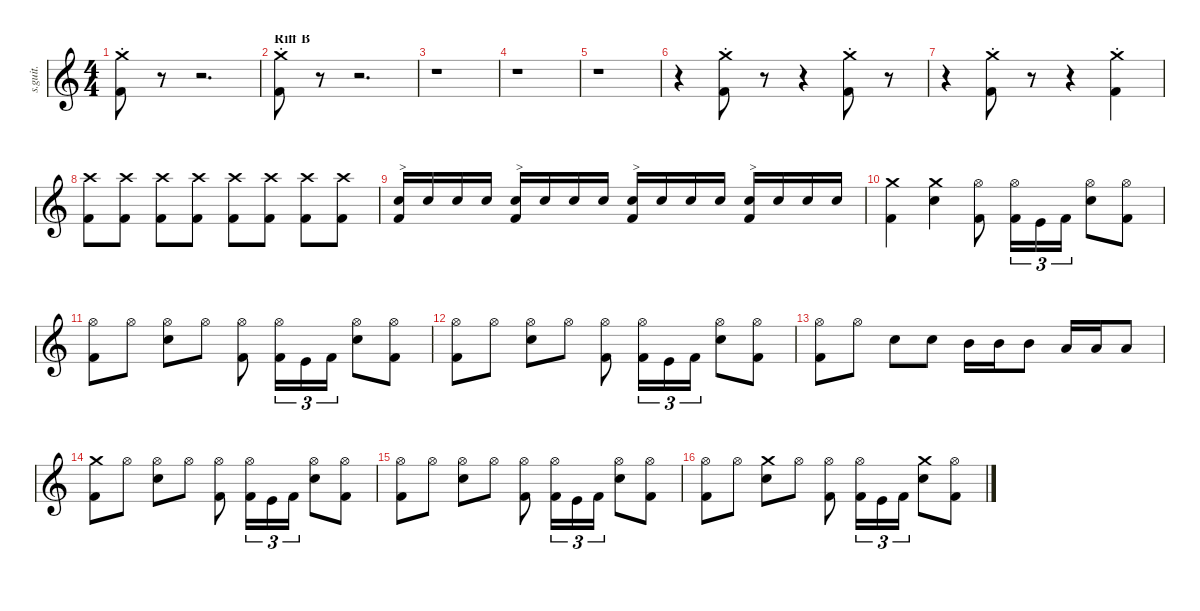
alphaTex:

\defaultSystemsLayout 4
\hideDynamics
\bracketExtendMode nobrackets
\track ("Lars Ulrich - Drums" "s.guit.") {instrument percussion}
\staff {score}
\articulation defaults
\ts (4 4)
\tempo (140 hide)
\clef g2
\ks c
("Crash medium (choke)" "Kick (hit) 2").8{lyrics (0 "") lyrics (1 "") lyrics (2 "") lyrics (3 "") lyrics (4 "") dy f} r.8 r.2{d} |
\section ("" "Riff B")
("Crash medium (choke)" "Kick (hit) 2").8{lyrics (0 "") lyrics (1 "") lyrics (2 "") lyrics (3 "") lyrics (4 "")} r.8 r.2{d} |
r.1 |
r.1 |
r.1 |
r.4 ("Crash medium (choke)" "Kick (hit) 2").8{lyrics (0 "") lyrics (1 "") lyrics (2 "") lyrics (3 "") lyrics (4 "")} r.8 r.4 ("Crash medium (choke)" "Kick (hit) 2").8{lyrics (0 "") lyrics (1 "") lyrics (2 "") lyrics (3 "") lyrics (4 "")} r.8 |
r.4 ("Crash medium (choke)" "Kick (hit) 2").8{lyrics (0 "") lyrics (1 "") lyrics (2 "") lyrics (3 "") lyrics (4 "")} r.8 r.4 ("Crash medium (choke)" "Kick (hit) 2").4{lyrics (0 "") lyrics (1 "") lyrics (2 "") lyrics (3 "") lyrics (4 "")} |
("Kick (hit) 2" "Crash high (hit)").8{lyrics (0 "") lyrics (1 "") lyrics (2 "") lyrics (3 "") lyrics (4 "")} ("Kick (hit) 2" "Crash high (hit)").8{lyrics (0 "") lyrics (1 "") lyrics (2 "") lyrics (3 "") lyrics (4 "")} ("Kick (hit) 2" "Crash high (hit)").8{lyrics (0 "") lyrics (1 "") lyrics (2 "") lyrics (3 "") lyrics (4 "")} ("Kick (hit) 2" "Crash high (hit)").8{lyrics (0 "") lyrics (1 "") lyrics (2 "") lyrics (3 "") lyrics (4 "")} ("Kick (hit) 2" "Crash high (hit)").8{lyrics (0 "") lyrics (1 "") lyrics (2 "") lyrics (3 "") lyrics (4 "")} ("Kick (hit) 2" "Crash high (hit)").8{lyrics (0 "") lyrics (1 "") lyrics (2 "") lyrics (3 "") lyrics (4 "")} ("Kick (hit) 2" "Crash high (hit)").8{lyrics (0 "") lyrics (1 "") lyrics (2 "") lyrics (3 "") lyrics (4 "")} ("Kick (hit) 2" "Crash high (hit)").8{lyrics (0 "") lyrics (1 "") lyrics (2 "") lyrics (3 "") lyrics (4 "")} |
("Snare (hit) 2" "Kick (hit) 2").16{txt ">" lyrics (0 "") lyrics (1 "") lyrics (2 "") lyrics (3 "") lyrics (4 "") dy fff} "Snare (hit) 2".16{lyrics (0 "") lyrics (1 "") lyrics (2 "") lyrics (3 "") lyrics (4 "") dy f} "Snare (hit) 2".16{lyrics (0 "") lyrics (1 "") lyrics (2 "") lyrics (3 "") lyrics (4 "")} "Snare (hit) 2".16{lyrics (0 "") lyrics (1 "") lyrics (2 "") lyrics (3 "") lyrics (4 "")} ("Snare (hit) 2" "Kick (hit) 2").16{txt ">" lyrics (0 "") lyrics (1 "") lyrics (2 "") lyrics (3 "") lyrics (4 "") dy fff} "Snare (hit) 2".16{lyrics (0 "") lyrics (1 "") lyrics (2 "") lyrics (3 "") lyrics (4 "") dy f} "Snare (hit) 2".16{lyrics (0 "") lyrics (1 "") lyrics (2 "") lyrics (3 "") lyrics (4 "")} "Snare (hit) 2".16{lyrics (0 "") lyrics (1 "") lyrics (2 "") lyrics (3 "") lyrics (4 "")} ("Snare (hit) 2" "Kick (hit) 2").16{txt ">" lyrics (0 "") lyrics (1 "") lyrics (2 "") lyrics (3 "") lyrics (4 "") dy fff} "Snare (hit) 2".16{lyrics (0 "") lyrics (1 "") lyrics (2 "") lyrics (3 "") lyrics (4 "") dy f} "Snare (hit) 2".16{lyrics (0 "") lyrics (1 "") lyrics (2 "") lyrics (3 "") lyrics (4 "")} "Snare (hit) 2".16{lyrics (0 "") lyrics (1 "") lyrics (2 "") lyrics (3 "") lyrics (4 "")} ("Snare (hit) 2" "Kick (hit) 2").16{txt ">" lyrics (0 "") lyrics (1 "") lyrics (2 "") lyrics (3 "") lyrics (4 "") dy fff} "Snare (hit) 2".16{lyrics (0 "") lyrics (1 "") lyrics (2 "") lyrics (3 "") lyrics (4 "") dy f} "Snare (hit) 2".16{lyrics (0 "") lyrics (1 "") lyrics (2 "") lyrics (3 "") lyrics (4 "")} "Snare (hit) 2".16{lyrics (0 "") lyrics (1 "") lyrics (2 "") lyrics (3 "") lyrics (4 "")} |
("Crash medium (hit)" "Kick (hit) 2").4{lyrics (0 "") lyrics (1 "") lyrics (2 "") lyrics (3 "") lyrics (4 "")} ("Crash medium (hit)" "Snare (hit) 2").4{lyrics (0 "") lyrics (1 "") lyrics (2 "") lyrics (3 "") lyrics (4 "")} ("Hi-Hat (open)" "Kick (hit) 2").8{lyrics (0 "") lyrics (1 "") lyrics (2 "") lyrics (3 "") lyrics (4 "")} ("Hi-Hat (open)" "Kick (hit) 2").16{tu (3 2) lyrics (0 "") lyrics (1 "") lyrics (2 "") lyrics (3 "") lyrics (4 "")} "Kick (hit)".16{tu (3 2) lyrics (0 "") lyrics (1 "") lyrics (2 "") lyrics (3 "") lyrics (4 "")} "Kick (hit) 2".16{tu (3 2) lyrics (0 "") lyrics (1 "") lyrics (2 "") lyrics (3 "") lyrics (4 "")} ("Hi-Hat (open)" "Snare (hit) 2").8{lyrics (0 "") lyrics (1 "") lyrics (2 "") lyrics (3 "") lyrics (4 "")} ("Hi-Hat (open)" "Kick (hit) 2").8{lyrics (0 "") lyrics (1 "") lyrics (2 "") lyrics (3 "") lyrics (4 "")} |
("Hi-Hat (open)" "Kick (hit) 2").8{lyrics (0 "") lyrics (1 "") lyrics (2 "") lyrics (3 "") lyrics (4 "")} "Hi-Hat (open)".8{lyrics (0 "") lyrics (1 "") lyrics (2 "") lyrics (3 "") lyrics (4 "")} ("Hi-Hat (open)" "Snare (hit) 2").8{lyrics (0 "") lyrics (1 "") lyrics (2 "") lyrics (3 "") lyrics (4 "")} "Hi-Hat (open)".8{lyrics (0 "") lyrics (1 "") lyrics (2 "") lyrics (3 "") lyrics (4 "")} ("Hi-Hat (open)" "Kick (hit) 2").8{lyrics (0 "") lyrics (1 "") lyrics (2 "") lyrics (3 "") lyrics (4 "")} ("Hi-Hat (open)" "Kick (hit) 2").16{tu (3 2) lyrics (0 "") lyrics (1 "") lyrics (2 "") lyrics (3 "") lyrics (4 "")} "Kick (hit)".16{tu (3 2) lyrics (0 "") lyrics (1 "") lyrics (2 "") lyrics (3 "") lyrics (4 "")} "Kick (hit) 2".16{tu (3 2) lyrics (0 "") lyrics (1 "") lyrics (2 "") lyrics (3 "") lyrics (4 "")} ("Hi-Hat (open)" "Snare (hit) 2").8{lyrics (0 "") lyrics (1 "") lyrics (2 "") lyrics (3 "") lyrics (4 "")} ("Hi-Hat (open)" "Kick (hit) 2").8{lyrics (0 "") lyrics (1 "") lyrics (2 "") lyrics (3 "") lyrics (4 "")} |
("Hi-Hat (open)" "Kick (hit) 2").8{lyrics (0 "") lyrics (1 "") lyrics (2 "") lyrics (3 "") lyrics (4 "")} "Hi-Hat (open)".8{lyrics (0 "") lyrics (1 "") lyrics (2 "") lyrics (3 "") lyrics (4 "")} ("Hi-Hat (open)" "Snare (hit) 2").8{lyrics (0 "") lyrics (1 "") lyrics (2 "") lyrics (3 "") lyrics (4 "")} "Hi-Hat (open)".8{lyrics (0 "") lyrics (1 "") lyrics (2 "") lyrics (3 "") lyrics (4 "")} ("Hi-Hat (open)" "Kick (hit) 2").8{lyrics (0 "") lyrics (1 "") lyrics (2 "") lyrics (3 "") lyrics (4 "")} ("Hi-Hat (open)" "Kick (hit) 2").16{tu (3 2) lyrics (0 "") lyrics (1 "") lyrics (2 "") lyrics (3 "") lyrics (4 "")} "Kick (hit)".16{tu (3 2) lyrics (0 "") lyrics (1 "") lyrics (2 "") lyrics (3 "") lyrics (4 "")} "Kick (hit) 2".16{tu (3 2) lyrics (0 "") lyrics (1 "") lyrics (2 "") lyrics (3 "") lyrics (4 "")} ("Hi-Hat (open)" "Snare (hit) 2").8{lyrics (0 "") lyrics (1 "") lyrics (2 "") lyrics (3 "") lyrics (4 "")} ("Hi-Hat (open)" "Kick (hit) 2").8{lyrics (0 "") lyrics (1 "") lyrics (2 "") lyrics (3 "") lyrics (4 "")} |
("Hi-Hat (open)" "Kick (hit) 2").8{lyrics (0 "") lyrics (1 "") lyrics (2 "") lyrics (3 "") lyrics (4 "")} "Hi-Hat (open)".8{lyrics (0 "") lyrics (1 "") lyrics (2 "") lyrics (3 "") lyrics (4 "")} "Snare (hit) 2".8{lyrics (0 "") lyrics (1 "") lyrics (2 "") lyrics (3 "") lyrics (4 "") dy fff} "Snare (hit) 2".8{lyrics (0 "") lyrics (1 "") lyrics (2 "") lyrics (3 "") lyrics (4 "") dy f} "Mid Tom (hit)".16{lyrics (0 "") lyrics (1 "") lyrics (2 "") lyrics (3 "") lyrics (4 "") dy fff} "Mid Tom (hit)".16{lyrics (0 "") lyrics (1 "") lyrics (2 "") lyrics (3 "") lyrics (4 "")} "Mid Tom (hit)".8{lyrics (0 "") lyrics (1 "") lyrics (2 "") lyrics (3 "") lyrics (4 "")} "Low Tom (hit)".16{lyrics (0 "") lyrics (1 "") lyrics (2 "") lyrics (3 "") lyrics (4 "")} "Low Tom (hit)".16{lyrics (0 "") lyrics (1 "") lyrics (2 "") lyrics (3 "") lyrics (4 "")} "Low Tom (hit)".8{lyrics (0 "") lyrics (1 "") lyrics (2 "") lyrics (3 "") lyrics (4 "")} |
("Crash medium (hit)" "Kick (hit) 2").8{lyrics (0 "") lyrics (1 "") lyrics (2 "") lyrics (3 "") lyrics (4 "") dy f} "Hi-Hat (open)".8{lyrics (0 "") lyrics (1 "") lyrics (2 "") lyrics (3 "") lyrics (4 "")} ("Hi-Hat (open)" "Snare (hit) 2").8{lyrics (0 "") lyrics (1 "") lyrics (2 "") lyrics (3 "") lyrics (4 "")} "Hi-Hat (open)".8{lyrics (0 "") lyrics (1 "") lyrics (2 "") lyrics (3 "") lyrics (4 "")} ("Hi-Hat (open)" "Kick (hit) 2").8{lyrics (0 "") lyrics (1 "") lyrics (2 "") lyrics (3 "") lyrics (4 "")} ("Hi-Hat (open)" "Kick (hit) 2").16{tu (3 2) lyrics (0 "") lyrics (1 "") lyrics (2 "") lyrics (3 "") lyrics (4 "")} "Kick (hit)".16{tu (3 2) lyrics (0 "") lyrics (1 "") lyrics (2 "") lyrics (3 "") lyrics (4 "")} "Kick (hit) 2".16{tu (3 2) lyrics (0 "") lyrics (1 "") lyrics (2 "") lyrics (3 "") lyrics (4 "")} ("Hi-Hat (open)" "Snare (hit) 2").8{lyrics (0 "") lyrics (1 "") lyrics (2 "") lyrics (3 "") lyrics (4 "")} ("Hi-Hat (open)" "Kick (hit) 2").8{lyrics (0 "") lyrics (1 "") lyrics (2 "") lyrics (3 "") lyrics (4 "")} |
("Hi-Hat (open)" "Kick (hit) 2").8{lyrics (0 "") lyrics (1 "") lyrics (2 "") lyrics (3 "") lyrics (4 "")} "Hi-Hat (open)".8{lyrics (0 "") lyrics (1 "") lyrics (2 "") lyrics (3 "") lyrics (4 "")} ("Hi-Hat (open)" "Snare (hit) 2").8{lyrics (0 "") lyrics (1 "") lyrics (2 "") lyrics (3 "") lyrics (4 "")} "Hi-Hat (open)".8{lyrics (0 "") lyrics (1 "") lyrics (2 "") lyrics (3 "") lyrics (4 "")} ("Hi-Hat (open)" "Kick (hit) 2").8{lyrics (0 "") lyrics (1 "") lyrics (2 "") lyrics (3 "") lyrics (4 "")} ("Hi-Hat (open)" "Kick (hit) 2").16{tu (3 2) lyrics (0 "") lyrics (1 "") lyrics (2 "") lyrics (3 "") lyrics (4 "")} "Kick (hit)".16{tu (3 2) lyrics (0 "") lyrics (1 "") lyrics (2 "") lyrics (3 "") lyrics (4 "")} "Kick (hit) 2".16{tu (3 2) lyrics (0 "") lyrics (1 "") lyrics (2 "") lyrics (3 "") lyrics (4 "")} ("Hi-Hat (open)" "Snare (hit) 2").8{lyrics (0 "") lyrics (1 "") lyrics (2 "") lyrics (3 "") lyrics (4 "")} ("Hi-Hat (open)" "Kick (hit) 2").8{lyrics (0 "") lyrics (1 "") lyrics (2 "") lyrics (3 "") lyrics (4 "")} |
("Hi-Hat (open)" "Kick (hit) 2").8{lyrics (0 "") lyrics (1 "") lyrics (2 "") lyrics (3 "") lyrics (4 "")} "Hi-Hat (open)".8{lyrics (0 "") lyrics (1 "") lyrics (2 "") lyrics (3 "") lyrics (4 "")} ("Crash medium (hit)" "Snare (hit) 2").8{lyrics (0 "") lyrics (1 "") lyrics (2 "") lyrics (3 "") lyrics (4 "")} "Hi-Hat (open)".8{lyrics (0 "") lyrics (1 "") lyrics (2 "") lyrics (3 "") lyrics (4 "")} ("Hi-Hat (open)" "Kick (hit) 2").8{lyrics (0 "") lyrics (1 "") lyrics (2 "") lyrics (3 "") lyrics (4 "")} ("Hi-Hat (open)" "Kick (hit) 2").16{tu (3 2) lyrics (0 "") lyrics (1 "") lyrics (2 "") lyrics (3 "") lyrics (4 "")} "Kick (hit)".16{tu (3 2) lyrics (0 "") lyrics (1 "") lyrics (2 "") lyrics (3 "") lyrics (4 "")} "Kick (hit) 2".16{tu (3 2) lyrics (0 "") lyrics (1 "") lyrics (2 "") lyrics (3 "") lyrics (4 "")} ("Crash medium (hit)" "Snare (hit) 2").8{lyrics (0 "") lyrics (1 "") lyrics (2 "") lyrics (3 "") lyrics (4 "")} ("Hi-Hat (open)" "Kick (hit) 2").8{lyrics (0 "") lyrics (1 "") lyrics (2 "") lyrics (3 "") lyrics (4 "")}
